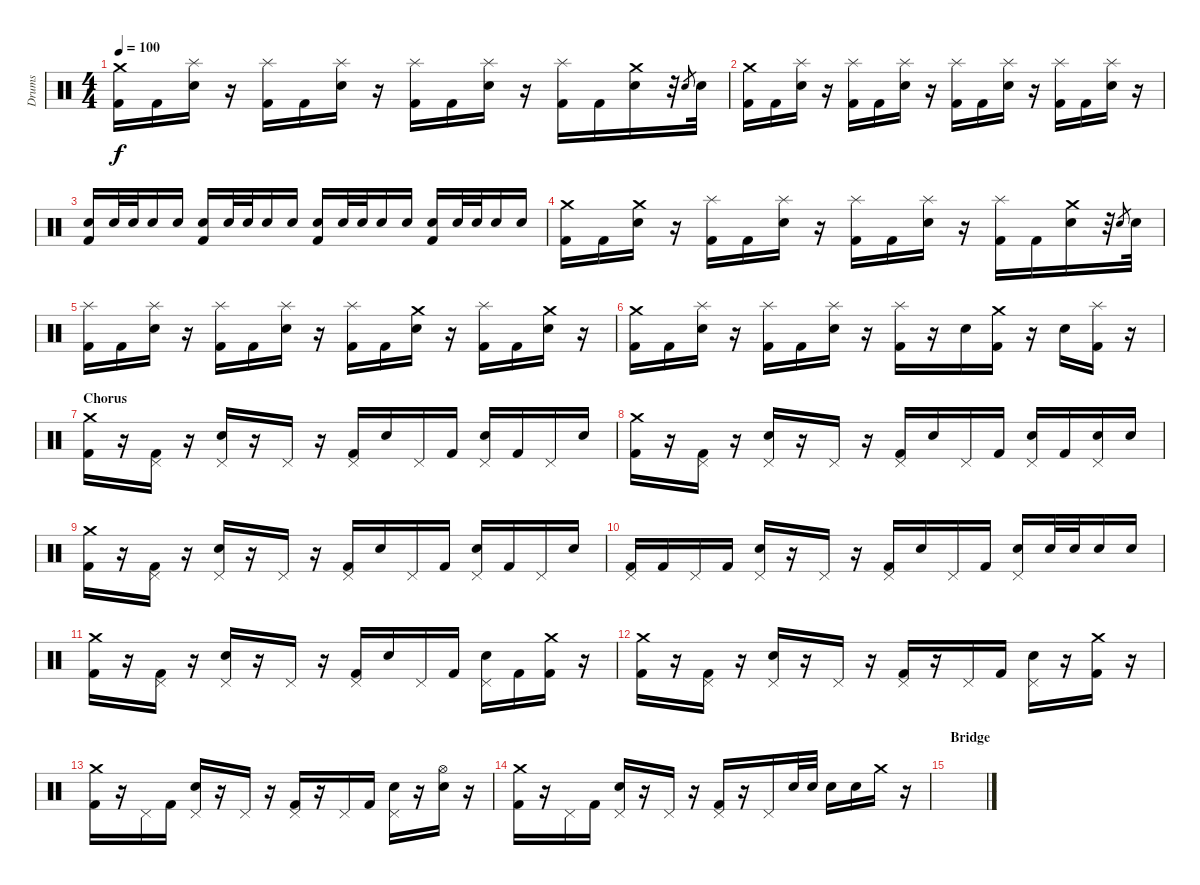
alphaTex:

\track ("Drums" "Drums") {instrument percussion}
\staff {score}
\articulation defaults
\ts (4 4)
\tempo 100
\clef neutral
\ks c
("Crash medium (hit)" "Kick (hit) 2").16{dy f} "Kick (hit) 2".16 ("Splash (hit)" "Electric Snare (hit)").16 r.16 ("Splash (hit)" "Kick (hit) 2").16 "Kick (hit) 2".16 ("Splash (hit)" "Electric Snare (hit)").16 r.16 ("Splash (hit)" "Kick (hit) 2").16 "Kick (hit) 2".16 ("Splash (hit)" "Electric Snare (hit)").16 r.16 ("Splash (hit)" "Kick (hit) 2").16 "Kick (hit) 2".16 ("Crash medium (hit)" "Electric Snare (hit)").16 r.32 "Electric Snare (hit)".8{gr} "Electric Snare (hit)".32 |
("Crash medium (hit)" "Kick (hit) 2").16 "Kick (hit) 2".16 ("Splash (hit)" "Electric Snare (hit)").16 r.16 ("Splash (hit)" "Kick (hit) 2").16 "Kick (hit) 2".16 ("Splash (hit)" "Electric Snare (hit)").16 r.16 ("Splash (hit)" "Kick (hit) 2").16 "Kick (hit) 2".16 ("Splash (hit)" "Electric Snare (hit)").16 r.16 ("Splash (hit)" "Kick (hit) 2").16 "Kick (hit) 2".16 ("Splash (hit)" "Electric Snare (hit)").16 r.16 |
("Electric Snare (hit)" "Kick (hit) 2").16 "Electric Snare (hit)".32 "Electric Snare (hit)".32 "Electric Snare (hit)".16 "Electric Snare (hit)".16 ("Electric Snare (hit)" "Kick (hit) 2").16 "Electric Snare (hit)".32 "Electric Snare (hit)".32 "Electric Snare (hit)".16 "Electric Snare (hit)".16 ("Electric Snare (hit)" "Kick (hit) 2").16 "Electric Snare (hit)".32 "Electric Snare (hit)".32 "Electric Snare (hit)".16 "Electric Snare (hit)".16 ("Electric Snare (hit)" "Kick (hit) 2").16 "Electric Snare (hit)".32 "Electric Snare (hit)".32 "Electric Snare (hit)".16 "Electric Snare (hit)".16 |
("Crash medium (hit)" "Kick (hit) 2").16 "Kick (hit) 2".16 ("Crash medium (hit)" "Electric Snare (hit)").16 r.16 ("Splash (hit)" "Kick (hit) 2").16 "Kick (hit) 2".16 ("Splash (hit)" "Electric Snare (hit)").16 r.16 ("Splash (hit)" "Kick (hit) 2").16 "Kick (hit) 2".16 ("Splash (hit)" "Electric Snare (hit)").16 r.16 ("Splash (hit)" "Kick (hit) 2").16 "Kick (hit) 2".16 ("Crash medium (hit)" "Electric Snare (hit)").16 r.32 "Electric Snare (hit)".8{gr} "Electric Snare (hit)".32 |
("Splash (hit)" "Kick (hit) 2").16 "Kick (hit) 2".16 ("Splash (hit)" "Electric Snare (hit)").16 r.16 ("Splash (hit)" "Kick (hit) 2").16 "Kick (hit) 2".16 ("Splash (hit)" "Electric Snare (hit)").16 r.16 ("Splash (hit)" "Kick (hit) 2").16 "Kick (hit) 2".16 ("Crash medium (hit)" "Electric Snare (hit)").16 r.16 ("Splash (hit)" "Kick (hit) 2").16 "Kick (hit) 2".16 ("Crash medium (hit)" "Electric Snare (hit)").16 r.16 |
("Crash medium (hit)" "Kick (hit) 2").16 "Kick (hit) 2".16 ("Splash (hit)" "Electric Snare (hit)").16 r.16 ("Splash (hit)" "Kick (hit) 2").16 "Kick (hit) 2".16 ("Splash (hit)" "Electric Snare (hit)").16 r.16 ("Splash (hit)" "Kick (hit) 2").16 r.16 "Electric Snare (hit)".16 ("Crash medium (hit)" "Kick (hit) 2").16 r.16 "Electric Snare (hit)".16 ("Splash (hit)" "Kick (hit) 2").16 r.16 |
\section ("" "Chorus")
("Crash medium (hit)" "Kick (hit) 2").16 r.16 ("Pedal Hi-Hat (hit)" "Kick (hit) 2").16 r.16 ("Pedal Hi-Hat (hit)" "Electric Snare (hit)").16 r.16 "Pedal Hi-Hat (hit)".16 r.16 ("Pedal Hi-Hat (hit)" "Kick (hit) 2").16 "Electric Snare (hit)".16 "Pedal Hi-Hat (hit)".16 "Kick (hit) 2".16 ("Pedal Hi-Hat (hit)" "Electric Snare (hit)").16 "Kick (hit) 2".16 "Pedal Hi-Hat (hit)".16 "Electric Snare (hit)".16 |
("Crash medium (hit)" "Kick (hit) 2").16 r.16 ("Pedal Hi-Hat (hit)" "Kick (hit) 2").16 r.16 ("Pedal Hi-Hat (hit)" "Electric Snare (hit)").16 r.16 "Pedal Hi-Hat (hit)".16 r.16 ("Pedal Hi-Hat (hit)" "Kick (hit) 2").16 "Electric Snare (hit)".16 "Pedal Hi-Hat (hit)".16 "Kick (hit) 2".16 ("Pedal Hi-Hat (hit)" "Electric Snare (hit)").16 "Kick (hit) 2".16 ("Pedal Hi-Hat (hit)" "Electric Snare (hit)").16 "Electric Snare (hit)".16 |
("Crash medium (hit)" "Kick (hit) 2").16 r.16 ("Pedal Hi-Hat (hit)" "Kick (hit) 2").16 r.16 ("Pedal Hi-Hat (hit)" "Electric Snare (hit)").16 r.16 "Pedal Hi-Hat (hit)".16 r.16 ("Pedal Hi-Hat (hit)" "Kick (hit) 2").16 "Electric Snare (hit)".16 "Pedal Hi-Hat (hit)".16 "Kick (hit) 2".16 ("Pedal Hi-Hat (hit)" "Electric Snare (hit)").16 "Kick (hit) 2".16 "Pedal Hi-Hat (hit)".16 "Electric Snare (hit)".16 |
("Pedal Hi-Hat (hit)" "Kick (hit) 2").16 "Kick (hit) 2".16 "Pedal Hi-Hat (hit)".16 "Kick (hit) 2".16 ("Pedal Hi-Hat (hit)" "Electric Snare (hit)").16 r.16 "Pedal Hi-Hat (hit)".16 r.16 ("Pedal Hi-Hat (hit)" "Kick (hit) 2").16 "Electric Snare (hit)".16 "Pedal Hi-Hat (hit)".16 "Kick (hit) 2".16 ("Pedal Hi-Hat (hit)" "Electric Snare (hit)").16 "Electric Snare (hit)".32 "Electric Snare (hit)".32 "Electric Snare (hit)".16 "Electric Snare (hit)".16 |
("Crash medium (hit)" "Kick (hit) 2").16 r.16 ("Pedal Hi-Hat (hit)" "Kick (hit) 2").16 r.16 ("Pedal Hi-Hat (hit)" "Electric Snare (hit)").16 r.16 "Pedal Hi-Hat (hit)".16 r.16 ("Pedal Hi-Hat (hit)" "Kick (hit) 2").16 "Electric Snare (hit)".16 "Pedal Hi-Hat (hit)".16 "Kick (hit) 2".16 ("Pedal Hi-Hat (hit)" "Electric Snare (hit)").16 "Kick (hit) 2".16 ("Crash medium (hit)" "Kick (hit) 2").16 r.16 |
("Crash medium (hit)" "Kick (hit) 2").16 r.16 ("Pedal Hi-Hat (hit)" "Kick (hit) 2").16 r.16 ("Pedal Hi-Hat (hit)" "Electric Snare (hit)").16 r.16 "Pedal Hi-Hat (hit)".16 r.16 ("Pedal Hi-Hat (hit)" "Kick (hit) 2").16 r.16 "Pedal Hi-Hat (hit)".16 "Kick (hit) 2".16 ("Pedal Hi-Hat (hit)" "Electric Snare (hit)").16 r.16 ("Crash medium (hit)" "Kick (hit) 2").16 r.16 |
("Crash medium (hit)" "Kick (hit) 2").16 r.16 "Pedal Hi-Hat (hit)".16 "Kick (hit) 2".16 ("Pedal Hi-Hat (hit)" "Electric Snare (hit)").16 r.16 "Pedal Hi-Hat (hit)".16 r.16 ("Pedal Hi-Hat (hit)" "Kick (hit) 2").16 r.16 "Pedal Hi-Hat (hit)".16 "Kick (hit) 2".16 ("Pedal Hi-Hat (hit)" "Electric Snare (hit)").16 r.16 ("Hi-Hat (open)" "Electric Snare (hit)").16 r.16 |
("Crash medium (hit)" "Kick (hit) 2").16 r.16 "Pedal Hi-Hat (hit)".16 "Kick (hit) 2".16 ("Pedal Hi-Hat (hit)" "Electric Snare (hit)").16 r.16 "Pedal Hi-Hat (hit)".16 r.16 ("Pedal Hi-Hat (hit)" "Kick (hit) 2").16 r.16 "Pedal Hi-Hat (hit)".16 "Electric Snare (hit)".32 "Electric Snare (hit)".32 "Electric Snare (hit)".16 "Electric Snare (hit)".16 "Crash medium (hit)".16 r.16 |
\section ("" "Bridge")
